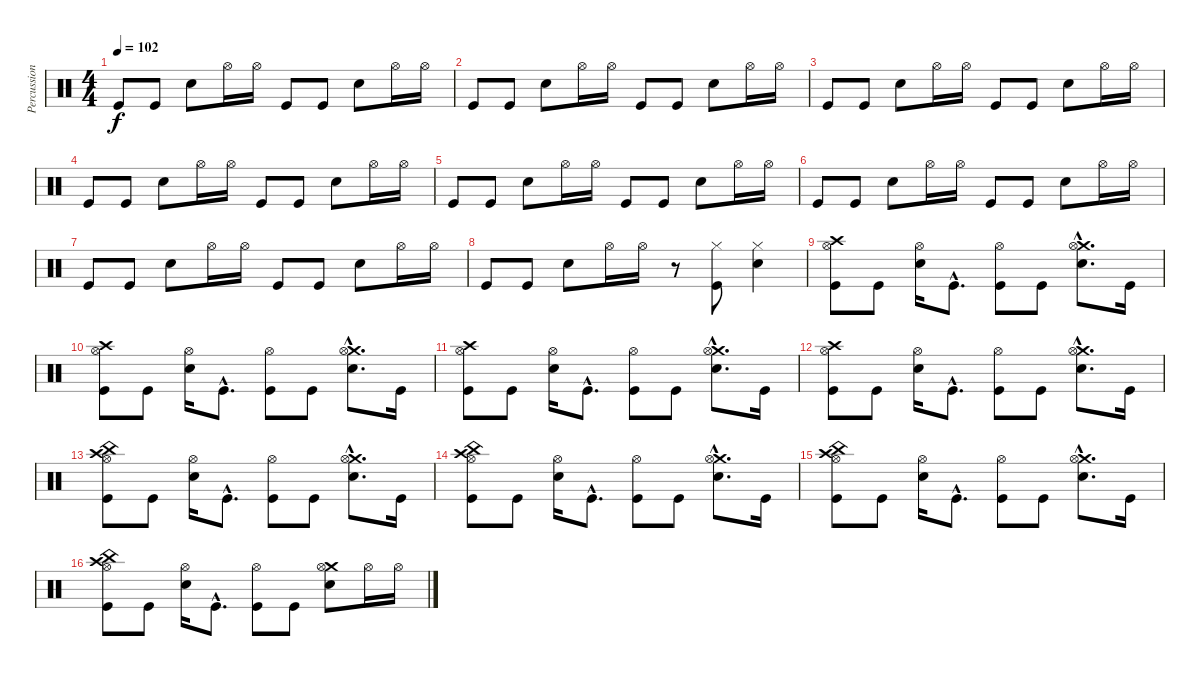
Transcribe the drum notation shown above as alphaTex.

\track ("Percussion (David)" "Percussion") {instrument percussion}
\staff {score}
\articulation defaults
\ts (4 4)
\tempo 102
\clef neutral
\ks c "Kick (hit)".8{dy f} "Kick (hit)".8 "Electric Snare (hit)".8 "Hi-Hat (open)".16 "Hi-Hat (open)".16 "Kick (hit)".8 "Kick (hit)".8 "Electric Snare (hit)".8 "Hi-Hat (open)".16 "Hi-Hat (open)".16
|
"Kick (hit)".8 "Kick (hit)".8 "Electric Snare (hit)".8 "Hi-Hat (open)".16 "Hi-Hat (open)".16 "Kick (hit)".8 "Kick (hit)".8 "Electric Snare (hit)".8 "Hi-Hat (open)".16 "Hi-Hat (open)".16 |
"Kick (hit)".8 "Kick (hit)".8 "Electric Snare (hit)".8 "Hi-Hat (open)".16 "Hi-Hat (open)".16 "Kick (hit)".8 "Kick (hit)".8 "Electric Snare (hit)".8 "Hi-Hat (open)".16 "Hi-Hat (open)".16 |
"Kick (hit)".8 "Kick (hit)".8 "Electric Snare (hit)".8 "Hi-Hat (open)".16 "Hi-Hat (open)".16 "Kick (hit)".8 "Kick (hit)".8 "Electric Snare (hit)".8 "Hi-Hat (open)".16 "Hi-Hat (open)".16 |
"Kick (hit)".8 "Kick (hit)".8 "Electric Snare (hit)".8 "Hi-Hat (open)".16 "Hi-Hat (open)".16 "Kick (hit)".8 "Kick (hit)".8 "Electric Snare (hit)".8 "Hi-Hat (open)".16 "Hi-Hat (open)".16 |
"Kick (hit)".8 "Kick (hit)".8 "Electric Snare (hit)".8 "Hi-Hat (open)".16 "Hi-Hat (open)".16 "Kick (hit)".8 "Kick (hit)".8 "Electric Snare (hit)".8 "Hi-Hat (open)".16 "Hi-Hat (open)".16 |
"Kick (hit)".8 "Kick (hit)".8 "Electric Snare (hit)".8 "Hi-Hat (open)".16 "Hi-Hat (open)".16 "Kick (hit)".8 "Kick (hit)".8 "Electric Snare (hit)".8 "Hi-Hat (open)".16 "Hi-Hat (open)".16 |
"Kick (hit)".8 "Kick (hit)".8 "Electric Snare (hit)".8 "Hi-Hat (open)".16 "Hi-Hat (open)".16 r.8 ("Kick (hit)" "Hi-Hat (closed)").8 ("Electric Snare (hit)" "Hi-Hat (closed)").4 |
("Kick (hit)" "Crash high (hit)" "Hi-Hat (open)").8 "Kick (hit)".8 ("Electric Snare (hit)" "Hi-Hat (open)").16 "Kick (hit)"{hac}.8{d} ("Kick (hit)" "Hi-Hat (open)").8 "Kick (hit)".8 ("Electric Snare (hit)"{hac} "Crash medium (hit)"{hac} "Hi-Hat (open)"{hac}).8{d} "Kick (hit)".16 |
("Kick (hit)" "Crash high (hit)" "Hi-Hat (open)").8 "Kick (hit)".8 ("Electric Snare (hit)" "Hi-Hat (open)").16 "Kick (hit)"{hac}.8{d} ("Kick (hit)" "Hi-Hat (open)").8 "Kick (hit)".8 ("Electric Snare (hit)"{hac} "Crash medium (hit)"{hac} "Hi-Hat (open)"{hac}).8{d} "Kick (hit)".16 |
("Kick (hit)" "Crash high (hit)" "Hi-Hat (open)").8 "Kick (hit)".8 ("Electric Snare (hit)" "Hi-Hat (open)").16 "Kick (hit)"{hac}.8{d} ("Kick (hit)" "Hi-Hat (open)").8 "Kick (hit)".8 ("Electric Snare (hit)"{hac} "Crash medium (hit)"{hac} "Hi-Hat (open)"{hac}).8{d} "Kick (hit)".16 |
("Kick (hit)" "Crash high (hit)" "Hi-Hat (open)").8 "Kick (hit)".8 ("Electric Snare (hit)" "Hi-Hat (open)").16 "Kick (hit)"{hac}.8{d} ("Kick (hit)" "Hi-Hat (open)").8 "Kick (hit)".8 ("Electric Snare (hit)"{hac} "Crash medium (hit)"{hac} "Hi-Hat (open)"{hac}).8{d} "Kick (hit)".16 |
("Kick (hit)" "Crash high (hit)" "Hi-Hat (open)" "China (hit)").8 "Kick (hit)".8 ("Electric Snare (hit)" "Hi-Hat (open)").16 "Kick (hit)"{hac}.8{d} ("Kick (hit)" "Hi-Hat (open)").8 "Kick (hit)".8 ("Electric Snare (hit)"{hac} "Crash medium (hit)"{hac} "Hi-Hat (open)"{hac}).8{d} "Kick (hit)".16 |
("Kick (hit)" "Crash high (hit)" "Hi-Hat (open)" "China (hit)").8 "Kick (hit)".8 ("Electric Snare (hit)" "Hi-Hat (open)").16 "Kick (hit)"{hac}.8{d} ("Kick (hit)" "Hi-Hat (open)").8 "Kick (hit)".8 ("Electric Snare (hit)"{hac} "Crash medium (hit)"{hac} "Hi-Hat (open)"{hac}).8{d} "Kick (hit)".16 |
("Kick (hit)" "Crash high (hit)" "Hi-Hat (open)" "China (hit)").8 "Kick (hit)".8 ("Electric Snare (hit)" "Hi-Hat (open)").16 "Kick (hit)"{hac}.8{d} ("Kick (hit)" "Hi-Hat (open)").8 "Kick (hit)".8 ("Electric Snare (hit)"{hac} "Crash medium (hit)"{hac} "Hi-Hat (open)"{hac}).8{d} "Kick (hit)".16 |
("Kick (hit)" "Crash high (hit)" "Hi-Hat (open)" "China (hit)").8 "Kick (hit)".8 ("Electric Snare (hit)" "Hi-Hat (open)").16 "Kick (hit)"{hac}.8{d} ("Kick (hit)" "Hi-Hat (open)").8 "Kick (hit)".8 ("Electric Snare (hit)" "Crash medium (hit)" "Hi-Hat (open)").8 "Hi-Hat (open)".16 "Hi-Hat (open)".16
